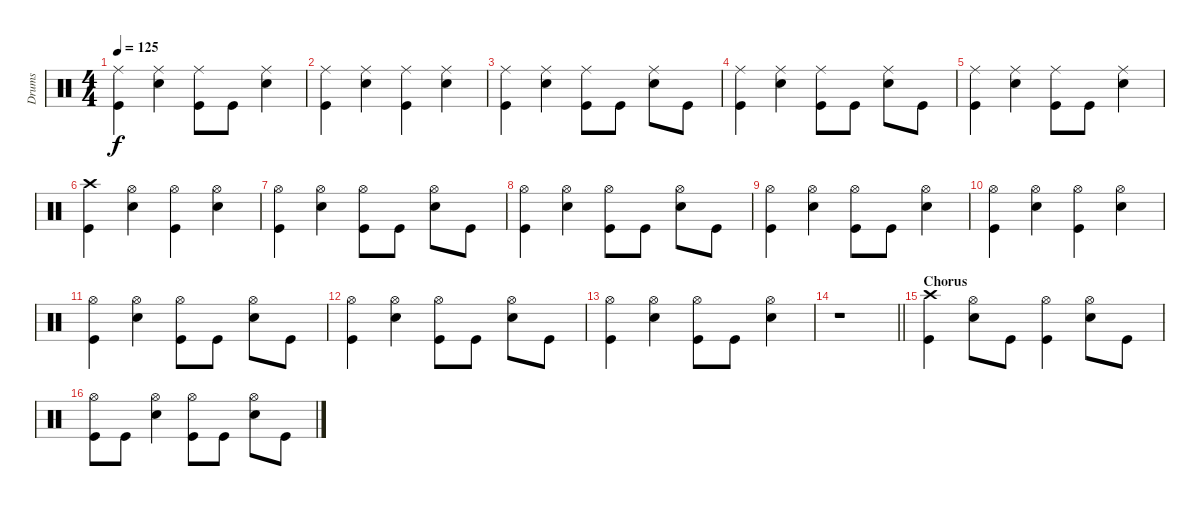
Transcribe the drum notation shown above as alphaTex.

\track ("Drums" "Drums") {instrument percussion}
\staff {score}
\articulation defaults
\ts (4 4)
\tempo 125
\clef neutral
\ks c
("Ride (middle)" "Kick (hit)").4{dy f} ("Ride (middle)" "Electric Snare (hit)").4 ("Ride (middle)" "Kick (hit)").8 "Kick (hit)".8 ("Ride (middle)" "Electric Snare (hit)").4 |
("Ride (middle)" "Kick (hit)").4 ("Ride (middle)" "Electric Snare (hit)").4 ("Ride (middle)" "Kick (hit)").4 ("Ride (middle)" "Electric Snare (hit)").4 |
("Ride (middle)" "Kick (hit)").4 ("Ride (middle)" "Electric Snare (hit)").4 ("Ride (middle)" "Kick (hit)").8 "Kick (hit)".8 ("Ride (middle)" "Electric Snare (hit)").8 "Kick (hit)".8 |
("Ride (middle)" "Kick (hit)").4 ("Ride (middle)" "Electric Snare (hit)").4 ("Ride (middle)" "Kick (hit)").8 "Kick (hit)".8 ("Ride (middle)" "Electric Snare (hit)").8 "Kick (hit)".8 |
("Ride (middle)" "Kick (hit)").4 ("Ride (middle)" "Electric Snare (hit)").4 ("Ride (middle)" "Kick (hit)").8 "Kick (hit)".8 ("Ride (middle)" "Electric Snare (hit)").4 |
("Crash high (hit)" "Kick (hit)").4 ("Hi-Hat (open)" "Electric Snare (hit)").4 ("Hi-Hat (open)" "Kick (hit)").4 ("Hi-Hat (open)" "Electric Snare (hit)").4 |
("Hi-Hat (open)" "Kick (hit)").4 ("Hi-Hat (open)" "Electric Snare (hit)").4 ("Hi-Hat (open)" "Kick (hit)").8 "Kick (hit)".8 ("Hi-Hat (open)" "Electric Snare (hit)").8 "Kick (hit)".8 |
("Hi-Hat (open)" "Kick (hit)").4 ("Hi-Hat (open)" "Electric Snare (hit)").4 ("Hi-Hat (open)" "Kick (hit)").8 "Kick (hit)".8 ("Hi-Hat (open)" "Electric Snare (hit)").8 "Kick (hit)".8 |
("Hi-Hat (open)" "Kick (hit)").4 ("Hi-Hat (open)" "Electric Snare (hit)").4 ("Hi-Hat (open)" "Kick (hit)").8 "Kick (hit)".8 ("Hi-Hat (open)" "Electric Snare (hit)").4 |
("Hi-Hat (open)" "Kick (hit)").4 ("Hi-Hat (open)" "Electric Snare (hit)").4 ("Hi-Hat (open)" "Kick (hit)").4 ("Hi-Hat (open)" "Electric Snare (hit)").4 |
("Hi-Hat (open)" "Kick (hit)").4 ("Hi-Hat (open)" "Electric Snare (hit)").4 ("Hi-Hat (open)" "Kick (hit)").8 "Kick (hit)".8 ("Hi-Hat (open)" "Electric Snare (hit)").8 "Kick (hit)".8 |
("Hi-Hat (open)" "Kick (hit)").4 ("Hi-Hat (open)" "Electric Snare (hit)").4 ("Hi-Hat (open)" "Kick (hit)").8 "Kick (hit)".8 ("Hi-Hat (open)" "Electric Snare (hit)").8 "Kick (hit)".8 |
("Hi-Hat (open)" "Kick (hit)").4 ("Hi-Hat (open)" "Electric Snare (hit)").4 ("Hi-Hat (open)" "Kick (hit)").8 "Kick (hit)".8 ("Hi-Hat (open)" "Electric Snare (hit)").4 |
\barLineRight lightlight
r.1 |
\section ("" "Chorus ")
("Crash high (hit)" "Kick (hit)").4 ("Hi-Hat (open)" "Electric Snare (hit)").8 "Kick (hit)".8 ("Hi-Hat (open)" "Kick (hit)").4 ("Hi-Hat (open)" "Electric Snare (hit)").8 "Kick (hit)".8 |
("Hi-Hat (open)" "Kick (hit)").8 "Kick (hit)".8 ("Hi-Hat (open)" "Electric Snare (hit)").4 ("Hi-Hat (open)" "Kick (hit)").8 "Kick (hit)".8 ("Hi-Hat (open)" "Electric Snare (hit)").8 "Kick (hit)".8
